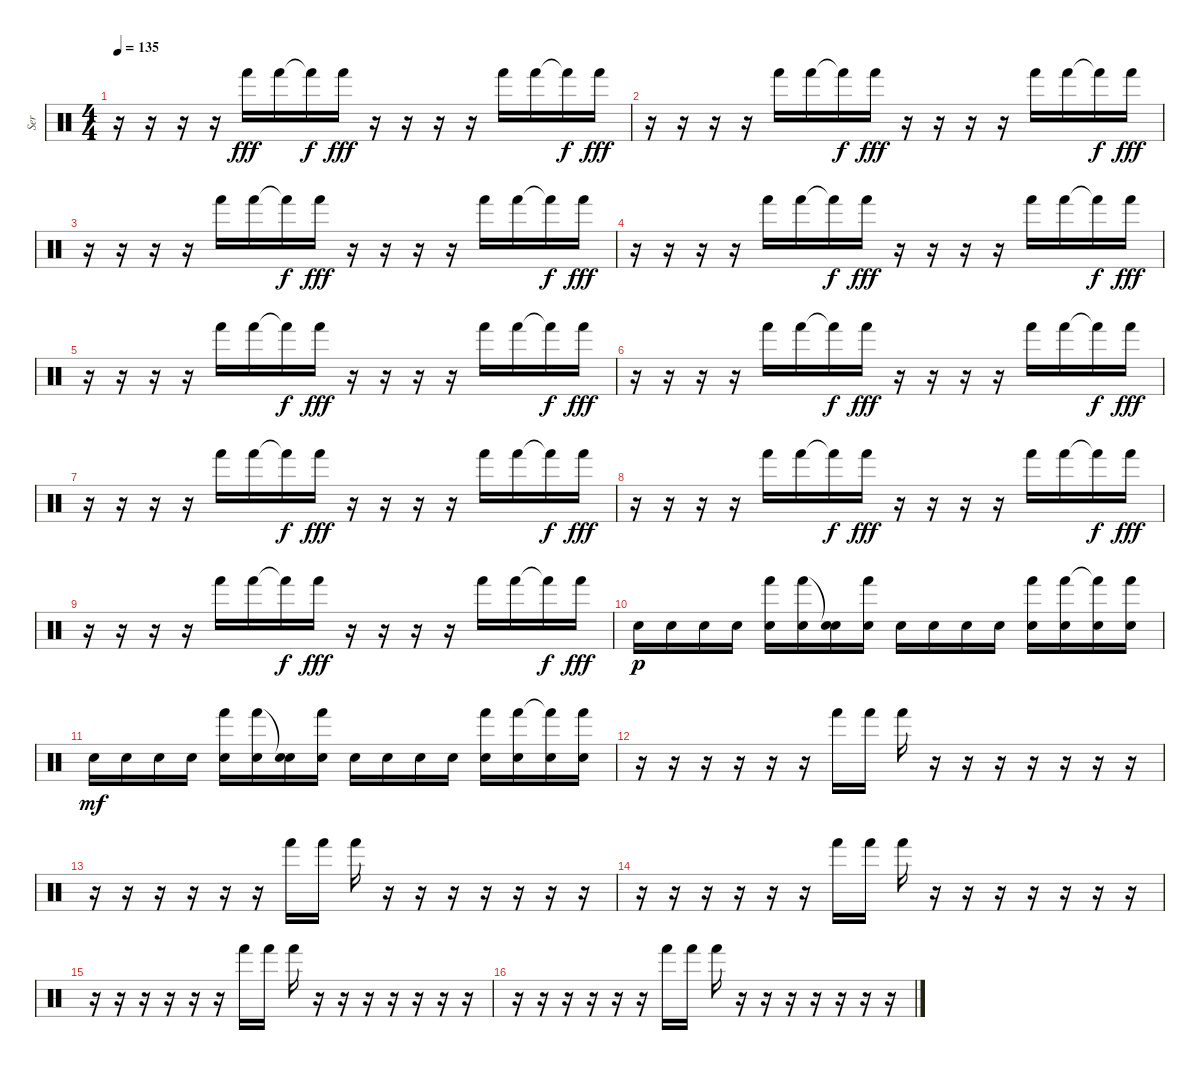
\track ("Ser" "Ser") {instrument percussion}
\staff {score}
\articulation defaults
\ts (4 4)
\tempo 135
\clef neutral
\ks c
r.16{dy fff} r.16 r.16 r.16 "Hand (hit)".16 "Hand (hit)".16 "Hand (hit)"{t}.16{dy f} "Hand (hit)".16{dy fff} r.16 r.16 r.16 r.16 "Hand (hit)".16 "Hand (hit)".16 "Hand (hit)"{t}.16{dy f} "Hand (hit)".16{dy fff} |
r.16 r.16 r.16 r.16 "Hand (hit)".16 "Hand (hit)".16 "Hand (hit)"{t}.16{dy f} "Hand (hit)".16{dy fff} r.16 r.16 r.16 r.16 "Hand (hit)".16 "Hand (hit)".16 "Hand (hit)"{t}.16{dy f} "Hand (hit)".16{dy fff} |
r.16 r.16 r.16 r.16 "Hand (hit)".16 "Hand (hit)".16 "Hand (hit)"{t}.16{dy f} "Hand (hit)".16{dy fff} r.16 r.16 r.16 r.16 "Hand (hit)".16 "Hand (hit)".16 "Hand (hit)"{t}.16{dy f} "Hand (hit)".16{dy fff} |
r.16 r.16 r.16 r.16 "Hand (hit)".16 "Hand (hit)".16 "Hand (hit)"{t}.16{dy f} "Hand (hit)".16{dy fff} r.16 r.16 r.16 r.16 "Hand (hit)".16 "Hand (hit)".16 "Hand (hit)"{t}.16{dy f} "Hand (hit)".16{dy fff} |
r.16 r.16 r.16 r.16 "Hand (hit)".16 "Hand (hit)".16 "Hand (hit)"{t}.16{dy f} "Hand (hit)".16{dy fff} r.16 r.16 r.16 r.16 "Hand (hit)".16 "Hand (hit)".16 "Hand (hit)"{t}.16{dy f} "Hand (hit)".16{dy fff} |
r.16 r.16 r.16 r.16 "Hand (hit)".16 "Hand (hit)".16 "Hand (hit)"{t}.16{dy f} "Hand (hit)".16{dy fff} r.16 r.16 r.16 r.16 "Hand (hit)".16 "Hand (hit)".16 "Hand (hit)"{t}.16{dy f} "Hand (hit)".16{dy fff} |
r.16 r.16 r.16 r.16 "Hand (hit)".16 "Hand (hit)".16 "Hand (hit)"{t}.16{dy f} "Hand (hit)".16{dy fff} r.16 r.16 r.16 r.16 "Hand (hit)".16 "Hand (hit)".16 "Hand (hit)"{t}.16{dy f} "Hand (hit)".16{dy fff} |
r.16 r.16 r.16 r.16 "Hand (hit)".16 "Hand (hit)".16 "Hand (hit)"{t}.16{dy f} "Hand (hit)".16{dy fff} r.16 r.16 r.16 r.16 "Hand (hit)".16 "Hand (hit)".16 "Hand (hit)"{t}.16{dy f} "Hand (hit)".16{dy fff} |
r.16 r.16 r.16 r.16 "Hand (hit)".16 "Hand (hit)".16 "Hand (hit)"{t}.16{dy f} "Hand (hit)".16{dy fff} r.16 r.16 r.16 r.16 "Hand (hit)".16 "Hand (hit)".16 "Hand (hit)"{t}.16{dy f} "Hand (hit)".16{dy fff} |
"Electric Snare (hit)".16{dy p} "Electric Snare (hit)".16 "Electric Snare (hit)".16 "Electric Snare (hit)".16 ("Hand (hit)" "Electric Snare (hit)").16 ("Hand (hit)" "Electric Snare (hit)").16 ("Snare (hit)"{t} "Electric Snare (hit)").16 ("Hand (hit)" "Electric Snare (hit)").16 "Electric Snare (hit)".16 "Electric Snare (hit)".16 "Electric Snare (hit)".16 "Electric Snare (hit)".16 ("Hand (hit)" "Electric Snare (hit)").16 ("Hand (hit)" "Electric Snare (hit)").16 ("Hand (hit)"{t} "Electric Snare (hit)").16 ("Hand (hit)" "Electric Snare (hit)").16 |
"Electric Snare (hit)".16{dy mf} "Electric Snare (hit)".16 "Electric Snare (hit)".16 "Electric Snare (hit)".16 ("Hand (hit)" "Electric Snare (hit)").16 ("Hand (hit)" "Electric Snare (hit)").16 ("Snare (hit)"{t} "Electric Snare (hit)").16 ("Hand (hit)" "Electric Snare (hit)").16 "Electric Snare (hit)".16 "Electric Snare (hit)".16 "Electric Snare (hit)".16 "Electric Snare (hit)".16 ("Hand (hit)" "Electric Snare (hit)").16 ("Hand (hit)" "Electric Snare (hit)").16 ("Hand (hit)"{t} "Electric Snare (hit)").16 ("Hand (hit)" "Electric Snare (hit)").16 |
r.16 r.16 r.16 r.16 r.16 r.16 "Hand (hit)".16 "Hand (hit)".16 "Hand (hit)".16 r.16 r.16 r.16 r.16 r.16 r.16 r.16 |
r.16 r.16 r.16 r.16 r.16 r.16 "Hand (hit)".16 "Hand (hit)".16 "Hand (hit)".16 r.16 r.16 r.16 r.16 r.16 r.16 r.16 |
r.16 r.16 r.16 r.16 r.16 r.16 "Hand (hit)".16 "Hand (hit)".16 "Hand (hit)".16 r.16 r.16 r.16 r.16 r.16 r.16 r.16 |
r.16 r.16 r.16 r.16 r.16 r.16 "Hand (hit)".16 "Hand (hit)".16 "Hand (hit)".16 r.16 r.16 r.16 r.16 r.16 r.16 r.16 |
r.16 r.16 r.16 r.16 r.16 r.16 "Hand (hit)".16 "Hand (hit)".16 "Hand (hit)".16 r.16 r.16 r.16 r.16 r.16 r.16 r.16
